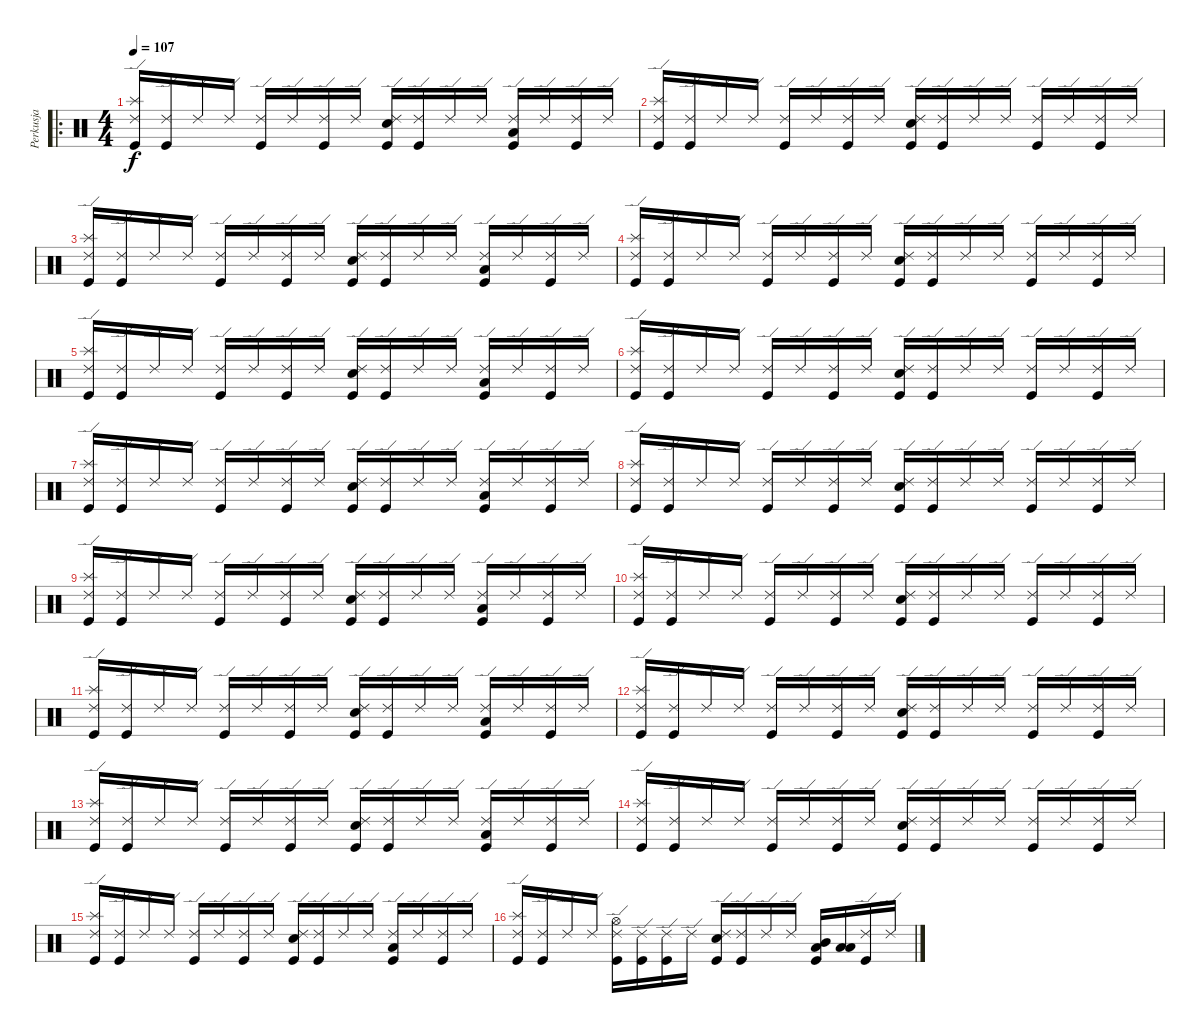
\track ("Perkusja" "Perkusja") {instrument percussion}
\staff {score}
\articulation defaults
\ro
\ts (4 4)
\tempo 107
\clef neutral
\ks c
("Ride (edge) 2" "Splash (hit)" "Kick (hit)").16{dy f} ("Ride (edge) 2" "Kick (hit)").16 "Ride (edge) 2".16 "Ride (edge) 2".16 ("Ride (edge) 2" "Kick (hit)").16 "Ride (edge) 2".16 ("Ride (edge) 2" "Kick (hit)").16 "Ride (edge) 2".16 ("Ride (edge) 2" "Electric Snare (hit)" "Kick (hit)").16 ("Ride (edge) 2" "Kick (hit)").16 "Ride (edge) 2".16 "Ride (edge) 2".16 ("Ride (edge) 2" "Low Floor Tom (hit)" "Kick (hit)").16 "Ride (edge) 2".16 ("Ride (edge) 2" "Kick (hit)").16 "Ride (edge) 2".16 |
("Ride (edge) 2" "Splash (hit)" "Kick (hit)").16 ("Ride (edge) 2" "Kick (hit)").16 "Ride (edge) 2".16 "Ride (edge) 2".16 ("Ride (edge) 2" "Kick (hit)").16 "Ride (edge) 2".16 ("Ride (edge) 2" "Kick (hit)").16 "Ride (edge) 2".16 ("Ride (edge) 2" "Electric Snare (hit)" "Kick (hit)").16 ("Ride (edge) 2" "Kick (hit)").16 "Ride (edge) 2".16 "Ride (edge) 2".16 ("Ride (edge) 2" "Kick (hit)").16 "Ride (edge) 2".16 ("Ride (edge) 2" "Kick (hit)").16 "Ride (edge) 2".16 |
("Ride (edge) 2" "Splash (hit)" "Kick (hit)").16 ("Ride (edge) 2" "Kick (hit)").16 "Ride (edge) 2".16 "Ride (edge) 2".16 ("Ride (edge) 2" "Kick (hit)").16 "Ride (edge) 2".16 ("Ride (edge) 2" "Kick (hit)").16 "Ride (edge) 2".16 ("Ride (edge) 2" "Electric Snare (hit)" "Kick (hit)").16 ("Ride (edge) 2" "Kick (hit)").16 "Ride (edge) 2".16 "Ride (edge) 2".16 ("Ride (edge) 2" "Low Floor Tom (hit)" "Kick (hit)").16 "Ride (edge) 2".16 ("Ride (edge) 2" "Kick (hit)").16 "Ride (edge) 2".16 |
("Ride (edge) 2" "Splash (hit)" "Kick (hit)").16 ("Ride (edge) 2" "Kick (hit)").16 "Ride (edge) 2".16 "Ride (edge) 2".16 ("Ride (edge) 2" "Kick (hit)").16 "Ride (edge) 2".16 ("Ride (edge) 2" "Kick (hit)").16 "Ride (edge) 2".16 ("Ride (edge) 2" "Electric Snare (hit)" "Kick (hit)").16 ("Ride (edge) 2" "Kick (hit)").16 "Ride (edge) 2".16 "Ride (edge) 2".16 ("Ride (edge) 2" "Kick (hit)").16 "Ride (edge) 2".16 ("Ride (edge) 2" "Kick (hit)").16 "Ride (edge) 2".16 |
("Ride (edge) 2" "Splash (hit)" "Kick (hit)").16 ("Ride (edge) 2" "Kick (hit)").16 "Ride (edge) 2".16 "Ride (edge) 2".16 ("Ride (edge) 2" "Kick (hit)").16 "Ride (edge) 2".16 ("Ride (edge) 2" "Kick (hit)").16 "Ride (edge) 2".16 ("Ride (edge) 2" "Electric Snare (hit)" "Kick (hit)").16 ("Ride (edge) 2" "Kick (hit)").16 "Ride (edge) 2".16 "Ride (edge) 2".16 ("Ride (edge) 2" "Low Floor Tom (hit)" "Kick (hit)").16 "Ride (edge) 2".16 ("Ride (edge) 2" "Kick (hit)").16 "Ride (edge) 2".16 |
("Ride (edge) 2" "Splash (hit)" "Kick (hit)").16 ("Ride (edge) 2" "Kick (hit)").16 "Ride (edge) 2".16 "Ride (edge) 2".16 ("Ride (edge) 2" "Kick (hit)").16 "Ride (edge) 2".16 ("Ride (edge) 2" "Kick (hit)").16 "Ride (edge) 2".16 ("Ride (edge) 2" "Electric Snare (hit)" "Kick (hit)").16 ("Ride (edge) 2" "Kick (hit)").16 "Ride (edge) 2".16 "Ride (edge) 2".16 ("Ride (edge) 2" "Kick (hit)").16 "Ride (edge) 2".16 ("Ride (edge) 2" "Kick (hit)").16 "Ride (edge) 2".16 |
("Ride (edge) 2" "Splash (hit)" "Kick (hit)").16 ("Ride (edge) 2" "Kick (hit)").16 "Ride (edge) 2".16 "Ride (edge) 2".16 ("Ride (edge) 2" "Kick (hit)").16 "Ride (edge) 2".16 ("Ride (edge) 2" "Kick (hit)").16 "Ride (edge) 2".16 ("Ride (edge) 2" "Electric Snare (hit)" "Kick (hit)").16 ("Ride (edge) 2" "Kick (hit)").16 "Ride (edge) 2".16 "Ride (edge) 2".16 ("Ride (edge) 2" "Low Floor Tom (hit)" "Kick (hit)").16 "Ride (edge) 2".16 ("Ride (edge) 2" "Kick (hit)").16 "Ride (edge) 2".16 |
("Ride (edge) 2" "Splash (hit)" "Kick (hit)").16 ("Ride (edge) 2" "Kick (hit)").16 "Ride (edge) 2".16 "Ride (edge) 2".16 ("Ride (edge) 2" "Kick (hit)").16 "Ride (edge) 2".16 ("Ride (edge) 2" "Kick (hit)").16 "Ride (edge) 2".16 ("Ride (edge) 2" "Electric Snare (hit)" "Kick (hit)").16 ("Ride (edge) 2" "Kick (hit)").16 "Ride (edge) 2".16 "Ride (edge) 2".16 ("Ride (edge) 2" "Kick (hit)").16 "Ride (edge) 2".16 ("Ride (edge) 2" "Kick (hit)").16 "Ride (edge) 2".16 |
("Ride (edge) 2" "Splash (hit)" "Kick (hit)").16 ("Ride (edge) 2" "Kick (hit)").16 "Ride (edge) 2".16 "Ride (edge) 2".16 ("Ride (edge) 2" "Kick (hit)").16 "Ride (edge) 2".16 ("Ride (edge) 2" "Kick (hit)").16 "Ride (edge) 2".16 ("Ride (edge) 2" "Electric Snare (hit)" "Kick (hit)").16 ("Ride (edge) 2" "Kick (hit)").16 "Ride (edge) 2".16 "Ride (edge) 2".16 ("Ride (edge) 2" "Low Floor Tom (hit)" "Kick (hit)").16 "Ride (edge) 2".16 ("Ride (edge) 2" "Kick (hit)").16 "Ride (edge) 2".16 |
("Ride (edge) 2" "Splash (hit)" "Kick (hit)").16 ("Ride (edge) 2" "Kick (hit)").16 "Ride (edge) 2".16 "Ride (edge) 2".16 ("Ride (edge) 2" "Kick (hit)").16 "Ride (edge) 2".16 ("Ride (edge) 2" "Kick (hit)").16 "Ride (edge) 2".16 ("Ride (edge) 2" "Electric Snare (hit)" "Kick (hit)").16 ("Ride (edge) 2" "Kick (hit)").16 "Ride (edge) 2".16 "Ride (edge) 2".16 ("Ride (edge) 2" "Kick (hit)").16 "Ride (edge) 2".16 ("Ride (edge) 2" "Kick (hit)").16 "Ride (edge) 2".16 |
("Ride (edge) 2" "Splash (hit)" "Kick (hit)").16 ("Ride (edge) 2" "Kick (hit)").16 "Ride (edge) 2".16 "Ride (edge) 2".16 ("Ride (edge) 2" "Kick (hit)").16 "Ride (edge) 2".16 ("Ride (edge) 2" "Kick (hit)").16 "Ride (edge) 2".16 ("Ride (edge) 2" "Electric Snare (hit)" "Kick (hit)").16 ("Ride (edge) 2" "Kick (hit)").16 "Ride (edge) 2".16 "Ride (edge) 2".16 ("Ride (edge) 2" "Low Floor Tom (hit)" "Kick (hit)").16 "Ride (edge) 2".16 ("Ride (edge) 2" "Kick (hit)").16 "Ride (edge) 2".16 |
("Ride (edge) 2" "Splash (hit)" "Kick (hit)").16 ("Ride (edge) 2" "Kick (hit)").16 "Ride (edge) 2".16 "Ride (edge) 2".16 ("Ride (edge) 2" "Kick (hit)").16 "Ride (edge) 2".16 ("Ride (edge) 2" "Kick (hit)").16 "Ride (edge) 2".16 ("Ride (edge) 2" "Electric Snare (hit)" "Kick (hit)").16 ("Ride (edge) 2" "Kick (hit)").16 "Ride (edge) 2".16 "Ride (edge) 2".16 ("Ride (edge) 2" "Kick (hit)").16 "Ride (edge) 2".16 ("Ride (edge) 2" "Kick (hit)").16 "Ride (edge) 2".16 |
("Ride (edge) 2" "Splash (hit)" "Kick (hit)").16 ("Ride (edge) 2" "Kick (hit)").16 "Ride (edge) 2".16 "Ride (edge) 2".16 ("Ride (edge) 2" "Kick (hit)").16 "Ride (edge) 2".16 ("Ride (edge) 2" "Kick (hit)").16 "Ride (edge) 2".16 ("Ride (edge) 2" "Electric Snare (hit)" "Kick (hit)").16 ("Ride (edge) 2" "Kick (hit)").16 "Ride (edge) 2".16 "Ride (edge) 2".16 ("Ride (edge) 2" "Low Floor Tom (hit)" "Kick (hit)").16 "Ride (edge) 2".16 ("Ride (edge) 2" "Kick (hit)").16 "Ride (edge) 2".16 |
("Ride (edge) 2" "Splash (hit)" "Kick (hit)").16 ("Ride (edge) 2" "Kick (hit)").16 "Ride (edge) 2".16 "Ride (edge) 2".16 ("Ride (edge) 2" "Kick (hit)").16 "Ride (edge) 2".16 ("Ride (edge) 2" "Kick (hit)").16 "Ride (edge) 2".16 ("Ride (edge) 2" "Electric Snare (hit)" "Kick (hit)").16 ("Ride (edge) 2" "Kick (hit)").16 "Ride (edge) 2".16 "Ride (edge) 2".16 ("Ride (edge) 2" "Kick (hit)").16 "Ride (edge) 2".16 ("Ride (edge) 2" "Kick (hit)").16 "Ride (edge) 2".16 |
("Ride (edge) 2" "Splash (hit)" "Kick (hit)").16 ("Ride (edge) 2" "Kick (hit)").16 "Ride (edge) 2".16 "Ride (edge) 2".16 ("Ride (edge) 2" "Kick (hit)").16 "Ride (edge) 2".16 ("Ride (edge) 2" "Kick (hit)").16 "Ride (edge) 2".16 ("Ride (edge) 2" "Electric Snare (hit)" "Kick (hit)").16 ("Ride (edge) 2" "Kick (hit)").16 "Ride (edge) 2".16 "Ride (edge) 2".16 ("Ride (edge) 2" "Low Floor Tom (hit)" "Kick (hit)").16 "Ride (edge) 2".16 ("Ride (edge) 2" "Kick (hit)").16 "Ride (edge) 2".16 |
("Ride (edge) 2" "Splash (hit)" "Kick (hit)").16 ("Ride (edge) 2" "Kick (hit)").16 "Ride (edge) 2".16 "Ride (edge) 2".16 ("Ride (edge) 2" "Hi-Hat (open)" "Kick (hit)").16 ("Ride (edge) 2" "Kick (hit)").16 ("Ride (edge) 2" "Kick (hit)").16 "Ride (edge) 2".16 ("Ride (edge) 2" "Electric Snare (hit)" "Kick (hit)").16 ("Ride (edge) 2" "Kick (hit)").16 "Ride (edge) 2".16 "Ride (edge) 2".16 ("Low Floor Tom (hit)" "Mid Tom (hit)" "Kick (hit)").16 ("Low Floor Tom (hit)" "Low Tom (hit)").16 ("Ride (edge) 2" "Kick (hit)").16 "Ride (edge) 2".16
